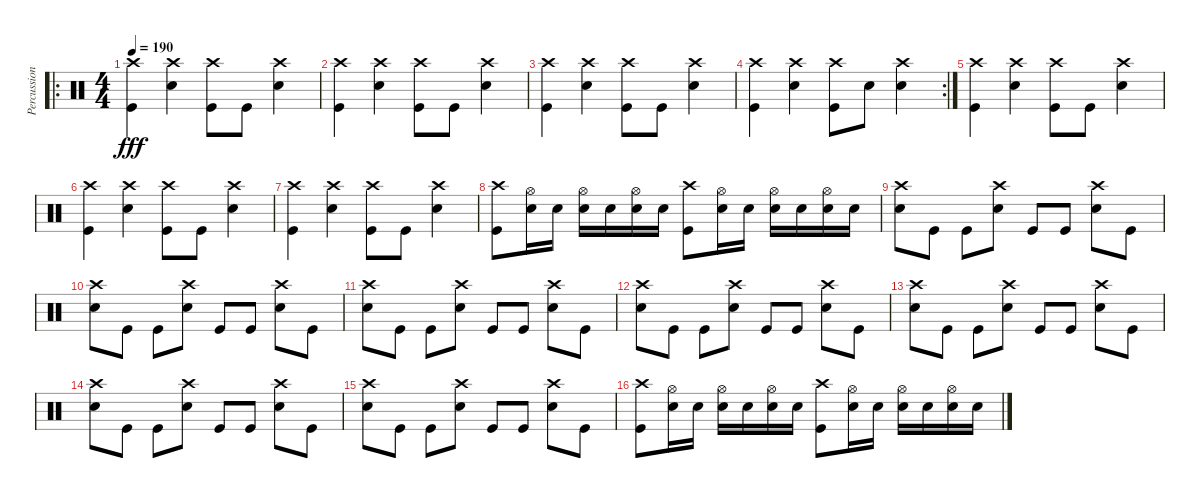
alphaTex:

\track ("Percussions" "Percussion") {instrument percussion}
\staff {score}
\articulation defaults
\ro
\ts (4 4)
\tempo 190
\clef neutral
\ks c
("Crash high (hit)" "Kick (hit)").4{dy fff} ("Crash high (hit)" "Electric Snare (hit)").4 ("Crash high (hit)" "Kick (hit)").8 "Kick (hit)".8 ("Crash high (hit)" "Electric Snare (hit)").4 |
("Crash high (hit)" "Kick (hit)").4 ("Crash high (hit)" "Electric Snare (hit)").4 ("Crash high (hit)" "Kick (hit)").8 "Kick (hit)".8 ("Crash high (hit)" "Electric Snare (hit)").4 |
("Crash high (hit)" "Kick (hit)").4 ("Crash high (hit)" "Electric Snare (hit)").4 ("Crash high (hit)" "Kick (hit)").8 "Kick (hit)".8 ("Crash high (hit)" "Electric Snare (hit)").4 |
\rc 2
("Crash high (hit)" "Kick (hit)").4 ("Crash high (hit)" "Electric Snare (hit)").4 ("Crash high (hit)" "Kick (hit)").8 "Electric Snare (hit)".8 ("Crash high (hit)" "Electric Snare (hit)").4 |
("Crash high (hit)" "Kick (hit)").4 ("Crash high (hit)" "Electric Snare (hit)").4 ("Crash high (hit)" "Kick (hit)").8 "Kick (hit)".8 ("Crash high (hit)" "Electric Snare (hit)").4 |
("Crash high (hit)" "Kick (hit)").4 ("Crash high (hit)" "Electric Snare (hit)").4 ("Crash high (hit)" "Kick (hit)").8 "Kick (hit)".8 ("Crash high (hit)" "Electric Snare (hit)").4 |
("Crash high (hit)" "Kick (hit)").4 ("Crash high (hit)" "Electric Snare (hit)").4 ("Crash high (hit)" "Kick (hit)").8 "Kick (hit)".8 ("Crash high (hit)" "Electric Snare (hit)").4 |
("Crash high (hit)" "Kick (hit)").8 ("Hi-Hat (open)" "Electric Snare (hit)").16 "Electric Snare (hit)".16 ("Hi-Hat (open)" "Electric Snare (hit)").16 "Electric Snare (hit)".16 ("Hi-Hat (open)" "Electric Snare (hit)").16 "Electric Snare (hit)".16 ("Crash high (hit)" "Kick (hit)").8 ("Hi-Hat (open)" "Electric Snare (hit)").16 "Electric Snare (hit)".16 ("Hi-Hat (open)" "Electric Snare (hit)").16 "Electric Snare (hit)".16 ("Hi-Hat (open)" "Electric Snare (hit)").16 "Electric Snare (hit)".16 |
("Crash high (hit)" "Electric Snare (hit)").8 "Kick (hit)".8 "Kick (hit)".8 ("Crash high (hit)" "Electric Snare (hit)").8 "Kick (hit)".8 "Kick (hit)".8 ("Crash high (hit)" "Electric Snare (hit)").8 "Kick (hit)".8 |
("Crash high (hit)" "Electric Snare (hit)").8 "Kick (hit)".8 "Kick (hit)".8 ("Crash high (hit)" "Electric Snare (hit)").8 "Kick (hit)".8 "Kick (hit)".8 ("Crash high (hit)" "Electric Snare (hit)").8 "Kick (hit)".8 |
("Crash high (hit)" "Electric Snare (hit)").8 "Kick (hit)".8 "Kick (hit)".8 ("Crash high (hit)" "Electric Snare (hit)").8 "Kick (hit)".8 "Kick (hit)".8 ("Crash high (hit)" "Electric Snare (hit)").8 "Kick (hit)".8 |
("Crash high (hit)" "Electric Snare (hit)").8 "Kick (hit)".8 "Kick (hit)".8 ("Crash high (hit)" "Electric Snare (hit)").8 "Kick (hit)".8 "Kick (hit)".8 ("Crash high (hit)" "Electric Snare (hit)").8 "Kick (hit)".8 |
("Crash high (hit)" "Electric Snare (hit)").8 "Kick (hit)".8 "Kick (hit)".8 ("Crash high (hit)" "Electric Snare (hit)").8 "Kick (hit)".8 "Kick (hit)".8 ("Crash high (hit)" "Electric Snare (hit)").8 "Kick (hit)".8 |
("Crash high (hit)" "Electric Snare (hit)").8 "Kick (hit)".8 "Kick (hit)".8 ("Crash high (hit)" "Electric Snare (hit)").8 "Kick (hit)".8 "Kick (hit)".8 ("Crash high (hit)" "Electric Snare (hit)").8 "Kick (hit)".8 |
("Crash high (hit)" "Electric Snare (hit)").8 "Kick (hit)".8 "Kick (hit)".8 ("Crash high (hit)" "Electric Snare (hit)").8 "Kick (hit)".8 "Kick (hit)".8 ("Crash high (hit)" "Electric Snare (hit)").8 "Kick (hit)".8 |
("Crash high (hit)" "Kick (hit)").8 ("Hi-Hat (open)" "Electric Snare (hit)").16 "Electric Snare (hit)".16 ("Hi-Hat (open)" "Electric Snare (hit)").16 "Electric Snare (hit)".16 ("Hi-Hat (open)" "Electric Snare (hit)").16 "Electric Snare (hit)".16 ("Crash high (hit)" "Kick (hit)").8 ("Hi-Hat (open)" "Electric Snare (hit)").16 "Electric Snare (hit)".16 ("Hi-Hat (open)" "Electric Snare (hit)").16 "Electric Snare (hit)".16 ("Hi-Hat (open)" "Electric Snare (hit)").16 "Electric Snare (hit)".16
